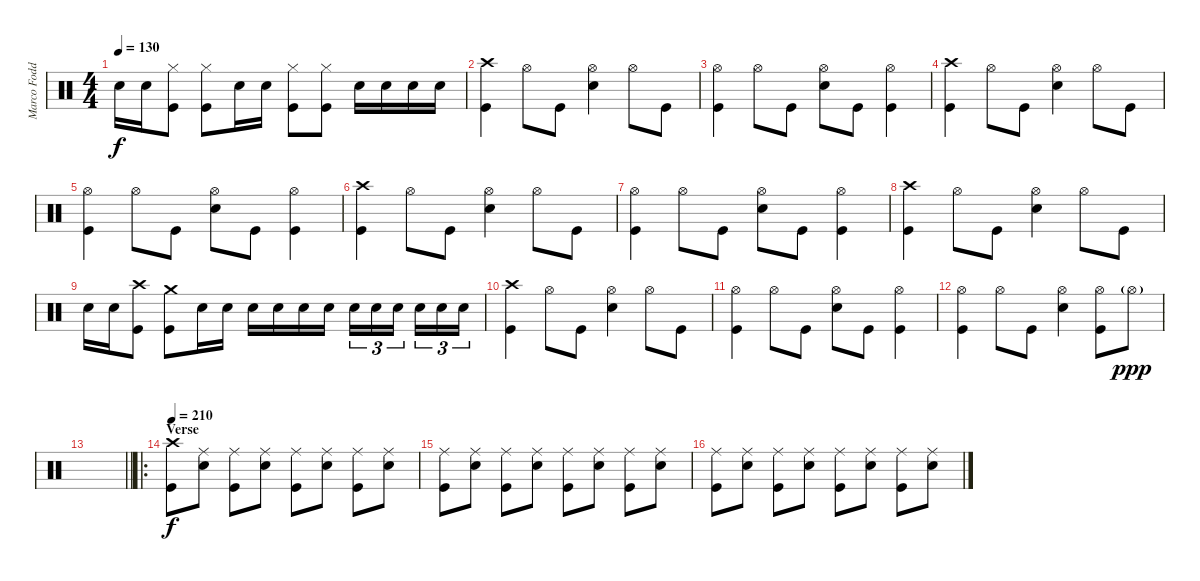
\track ("Marco Foddis" "Marco Fodd") {instrument percussion}
\staff {score}
\articulation defaults
\ts (4 4)
\tempo 130
\clef neutral
\ks c "Snare (hit) 2".16{dy f} "Snare (hit) 2".16
("Hi-Hat (closed)" "Kick (hit)").8 ("Hi-Hat (closed)" "Kick (hit)").8 "Snare (hit) 2".16 "Snare (hit) 2".16 ("Hi-Hat (closed)" "Kick (hit)").8 ("Hi-Hat (closed)" "Kick (hit)").8 "Snare (hit) 2".16 "Snare (hit) 2".16 "Snare (hit) 2".16 "Snare (hit) 2".16 |
("Crash high (hit)" "Kick (hit)").4 "Hi-Hat (open)".8 "Kick (hit)".8 ("Hi-Hat (open)" "Snare (hit) 2").4 "Hi-Hat (open)".8 "Kick (hit)".8 |
("Hi-Hat (open)" "Kick (hit)").4 "Hi-Hat (open)".8 "Kick (hit)".8 ("Hi-Hat (open)" "Snare (hit) 2").8 "Kick (hit)".8 ("Hi-Hat (open)" "Kick (hit)").4 |
("Crash high (hit)" "Kick (hit)").4 "Hi-Hat (open)".8 "Kick (hit)".8 ("Hi-Hat (open)" "Snare (hit) 2").4 "Hi-Hat (open)".8 "Kick (hit)".8 |
("Hi-Hat (open)" "Kick (hit)").4 "Hi-Hat (open)".8 "Kick (hit)".8 ("Hi-Hat (open)" "Snare (hit) 2").8 "Kick (hit)".8 ("Hi-Hat (open)" "Kick (hit)").4 |
("Crash high (hit)" "Kick (hit)").4 "Hi-Hat (open)".8 "Kick (hit)".8 ("Hi-Hat (open)" "Snare (hit) 2").4 "Hi-Hat (open)".8 "Kick (hit)".8 |
("Hi-Hat (open)" "Kick (hit)").4 "Hi-Hat (open)".8 "Kick (hit)".8 ("Hi-Hat (open)" "Snare (hit) 2").8 "Kick (hit)".8 ("Hi-Hat (open)" "Kick (hit)").4 |
("Crash high (hit)" "Kick (hit)").4 "Hi-Hat (open)".8 "Kick (hit)".8 ("Hi-Hat (open)" "Snare (hit) 2").4 "Hi-Hat (open)".8 "Kick (hit)".8 |
"Snare (hit) 2".16 "Snare (hit) 2".16 ("Crash high (hit)" "Kick (hit)").8 ("Crash medium (hit)" "Kick (hit)").8 "Snare (hit) 2".16 "Snare (hit) 2".16 "Snare (hit) 2".16 "Snare (hit) 2".16 "Snare (hit) 2".16 "Snare (hit) 2".16 "Snare (hit) 2".16{tu (3 2)} "Snare (hit) 2".16{tu (3 2)} "Snare (hit) 2".16{tu (3 2) beam splitsecondary} "Snare (hit) 2".16{tu (3 2)} "Snare (hit) 2".16{tu (3 2)} "Snare (hit) 2".16{tu (3 2)} |
("Crash high (hit)" "Kick (hit)").4 "Hi-Hat (open)".8 "Kick (hit)".8 ("Hi-Hat (open)" "Snare (hit) 2").4 "Hi-Hat (open)".8 "Kick (hit)".8 |
("Hi-Hat (open)" "Kick (hit)").4 "Hi-Hat (open)".8 "Kick (hit)".8 ("Hi-Hat (open)" "Snare (hit) 2").8 "Kick (hit)".8 ("Hi-Hat (open)" "Kick (hit)").4 |
("Hi-Hat (open)" "Kick (hit)").4 "Hi-Hat (open)".8 "Kick (hit)".8 ("Hi-Hat (open)" "Snare (hit) 2").4 ("Hi-Hat (open)" "Kick (hit)").8 "Hi-Hat (open)"{g}.8{dy ppp} |
\barLineRight lightlight
|
\ro
\section ("" "Verse")
\tempo 210
("Crash high (hit)" "Kick (hit)").8{dy f} ("Ride (middle)" "Snare (hit) 2").8 ("Ride (middle)" "Kick (hit)").8 ("Ride (middle)" "Snare (hit) 2").8 ("Ride (middle)" "Kick (hit)").8 ("Ride (middle)" "Snare (hit) 2").8 ("Ride (middle)" "Kick (hit)").8 ("Ride (middle)" "Snare (hit) 2").8 |
("Ride (middle)" "Kick (hit)").8 ("Ride (middle)" "Snare (hit) 2").8 ("Ride (middle)" "Kick (hit)").8 ("Ride (middle)" "Snare (hit) 2").8 ("Ride (middle)" "Kick (hit)").8 ("Ride (middle)" "Snare (hit) 2").8 ("Ride (middle)" "Kick (hit)").8 ("Ride (middle)" "Snare (hit) 2").8 |
("Ride (middle)" "Kick (hit)").8 ("Ride (middle)" "Snare (hit) 2").8 ("Ride (middle)" "Kick (hit)").8 ("Ride (middle)" "Snare (hit) 2").8 ("Ride (middle)" "Kick (hit)").8 ("Ride (middle)" "Snare (hit) 2").8 ("Ride (middle)" "Kick (hit)").8 ("Ride (middle)" "Snare (hit) 2").8
